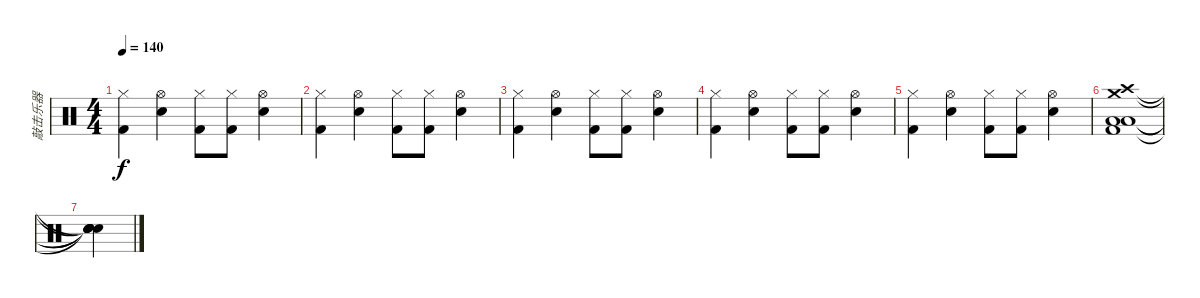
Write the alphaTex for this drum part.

\track ("敲击乐器" "敲击乐器") {instrument percussion}
\staff {score}
\articulation defaults
\ts (4 4)
\tempo 140
\clef neutral
\ks c
("Hi-Hat (closed)" "Kick (hit) 2").4{dy f} ("Hi-Hat (open)" "Electric Snare (hit)").4 ("Hi-Hat (closed)" "Kick (hit) 2").8 ("Hi-Hat (closed)" "Kick (hit) 2").8 ("Hi-Hat (open)" "Electric Snare (hit)").4 |
("Hi-Hat (closed)" "Kick (hit) 2").4 ("Hi-Hat (open)" "Electric Snare (hit)").4 ("Hi-Hat (closed)" "Kick (hit) 2").8 ("Hi-Hat (closed)" "Kick (hit) 2").8 ("Hi-Hat (open)" "Electric Snare (hit)").4 |
("Hi-Hat (closed)" "Kick (hit) 2").4 ("Hi-Hat (open)" "Electric Snare (hit)").4 ("Hi-Hat (closed)" "Kick (hit) 2").8 ("Hi-Hat (closed)" "Kick (hit) 2").8 ("Hi-Hat (open)" "Electric Snare (hit)").4 |
("Hi-Hat (closed)" "Kick (hit) 2").4 ("Hi-Hat (open)" "Electric Snare (hit)").4 ("Hi-Hat (closed)" "Kick (hit) 2").8 ("Hi-Hat (closed)" "Kick (hit) 2").8 ("Hi-Hat (open)" "Electric Snare (hit)").4 |
("Hi-Hat (closed)" "Kick (hit) 2").4 ("Hi-Hat (open)" "Electric Snare (hit)").4 ("Hi-Hat (closed)" "Kick (hit) 2").8 ("Hi-Hat (closed)" "Kick (hit) 2").8 ("Hi-Hat (open)" "Electric Snare (hit)").4 |
("Crash high (hit)" "Crash medium (hit)" "Low Tom (hit)" "Low Tom (hit)" "Kick (hit) 2").1 |
("Snare (hit)"{t} "Snare (hit)"{t} "Snare (hit)"{t} "Snare (hit)"{t} "Snare (hit)"{t}).4
